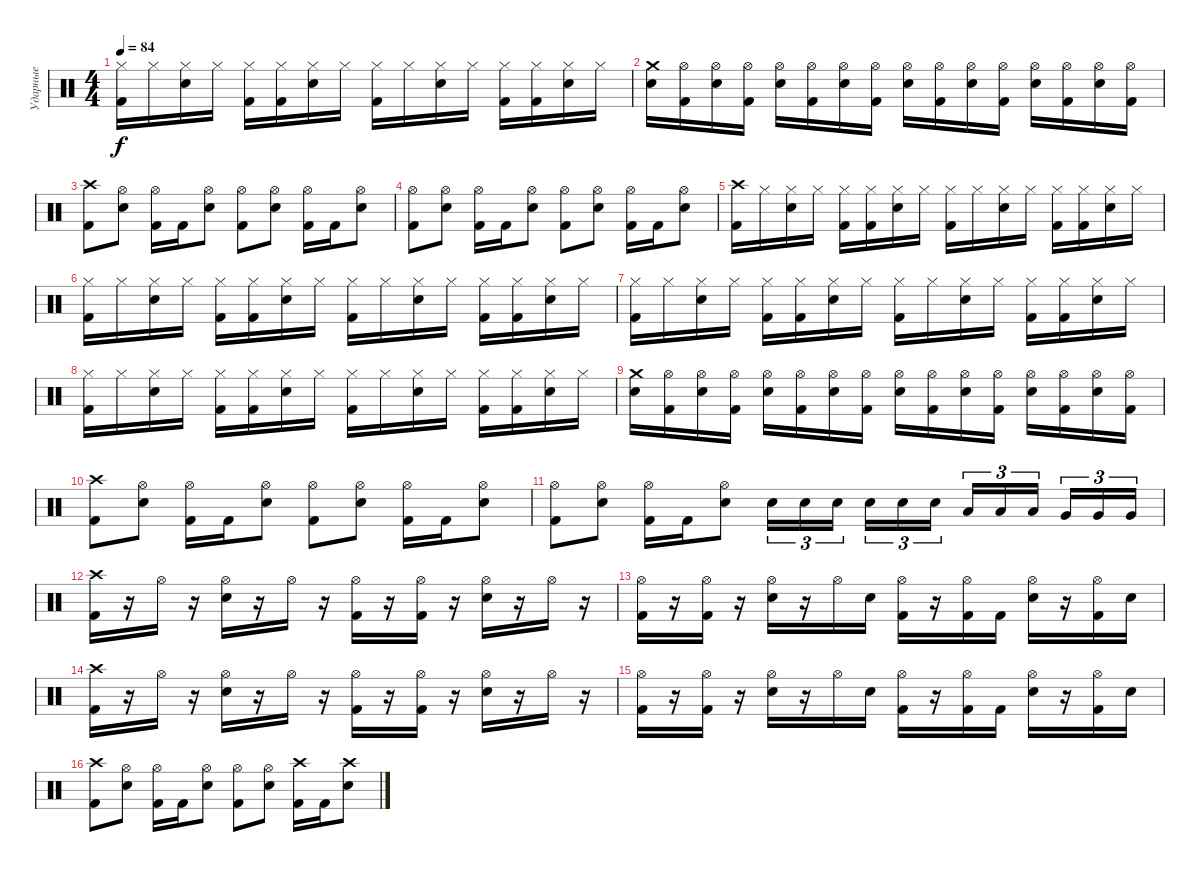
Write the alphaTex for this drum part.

\track ("Ударные" "Ударные") {instrument percussion}
\staff {score}
\articulation defaults
\ts (4 4)
\tempo 84
\clef neutral
\ks c
("Hi-Hat (closed)" "Kick (hit) 2").16{dy f} "Hi-Hat (closed)".16 ("Hi-Hat (closed)" "Snare (hit) 2").16 "Hi-Hat (closed)".16 ("Hi-Hat (closed)" "Kick (hit) 2").16 ("Hi-Hat (closed)" "Kick (hit) 2").16 ("Hi-Hat (closed)" "Snare (hit) 2").16 "Hi-Hat (closed)".16 ("Hi-Hat (closed)" "Kick (hit) 2").16 "Hi-Hat (closed)".16 ("Hi-Hat (closed)" "Snare (hit) 2").16 "Hi-Hat (closed)".16 ("Hi-Hat (closed)" "Kick (hit) 2").16 ("Hi-Hat (closed)" "Kick (hit) 2").16 ("Hi-Hat (closed)" "Snare (hit) 2").16 "Hi-Hat (closed)".16 |
("Crash medium (hit)" "Snare (hit) 2").16 ("Hi-Hat (open)" "Kick (hit) 2").16 ("Hi-Hat (open)" "Snare (hit) 2").16 ("Hi-Hat (open)" "Kick (hit) 2").16 ("Hi-Hat (open)" "Snare (hit) 2").16 ("Hi-Hat (open)" "Kick (hit) 2").16 ("Hi-Hat (open)" "Snare (hit) 2").16 ("Hi-Hat (open)" "Kick (hit) 2").16 ("Hi-Hat (open)" "Snare (hit) 2").16 ("Hi-Hat (open)" "Kick (hit) 2").16 ("Hi-Hat (open)" "Snare (hit) 2").16 ("Hi-Hat (open)" "Kick (hit) 2").16 ("Hi-Hat (open)" "Snare (hit) 2").16 ("Hi-Hat (open)" "Kick (hit) 2").16 ("Hi-Hat (open)" "Snare (hit) 2").16 ("Hi-Hat (open)" "Kick (hit) 2").16 |
("Crash high (hit)" "Kick (hit) 2").8 ("Hi-Hat (open)" "Snare (hit) 2").8 ("Hi-Hat (open)" "Kick (hit) 2").16 "Kick (hit) 2".16 ("Hi-Hat (open)" "Snare (hit) 2").8 ("Hi-Hat (open)" "Kick (hit) 2").8 ("Hi-Hat (open)" "Snare (hit) 2").8 ("Hi-Hat (open)" "Kick (hit) 2").16 "Kick (hit) 2".16 ("Hi-Hat (open)" "Snare (hit) 2").8 |
("Hi-Hat (open)" "Kick (hit) 2").8 ("Hi-Hat (open)" "Snare (hit) 2").8 ("Hi-Hat (open)" "Kick (hit) 2").16 "Kick (hit) 2".16 ("Hi-Hat (open)" "Snare (hit) 2").8 ("Hi-Hat (open)" "Kick (hit) 2").8 ("Hi-Hat (open)" "Snare (hit) 2").8 ("Hi-Hat (open)" "Kick (hit) 2").16 "Kick (hit) 2".16 ("Hi-Hat (open)" "Snare (hit) 2").8 |
("Crash high (hit)" "Kick (hit) 2").16 "Hi-Hat (closed)".16 ("Hi-Hat (closed)" "Snare (hit) 2").16 "Hi-Hat (closed)".16 ("Hi-Hat (closed)" "Kick (hit) 2").16 ("Hi-Hat (closed)" "Kick (hit) 2").16 ("Hi-Hat (closed)" "Snare (hit) 2").16 "Hi-Hat (closed)".16 ("Hi-Hat (closed)" "Kick (hit) 2").16 "Hi-Hat (closed)".16 ("Hi-Hat (closed)" "Snare (hit) 2").16 "Hi-Hat (closed)".16 ("Hi-Hat (closed)" "Kick (hit) 2").16 ("Hi-Hat (closed)" "Kick (hit) 2").16 ("Hi-Hat (closed)" "Snare (hit) 2").16 "Hi-Hat (closed)".16 |
("Hi-Hat (closed)" "Kick (hit) 2").16 "Hi-Hat (closed)".16 ("Hi-Hat (closed)" "Snare (hit) 2").16 "Hi-Hat (closed)".16 ("Hi-Hat (closed)" "Kick (hit) 2").16 ("Hi-Hat (closed)" "Kick (hit) 2").16 ("Hi-Hat (closed)" "Snare (hit) 2").16 "Hi-Hat (closed)".16 ("Hi-Hat (closed)" "Kick (hit) 2").16 "Hi-Hat (closed)".16 ("Hi-Hat (closed)" "Snare (hit) 2").16 "Hi-Hat (closed)".16 ("Hi-Hat (closed)" "Kick (hit) 2").16 ("Hi-Hat (closed)" "Kick (hit) 2").16 ("Hi-Hat (closed)" "Snare (hit) 2").16 "Hi-Hat (closed)".16 |
("Hi-Hat (closed)" "Kick (hit) 2").16 "Hi-Hat (closed)".16 ("Hi-Hat (closed)" "Snare (hit) 2").16 "Hi-Hat (closed)".16 ("Hi-Hat (closed)" "Kick (hit) 2").16 ("Hi-Hat (closed)" "Kick (hit) 2").16 ("Hi-Hat (closed)" "Snare (hit) 2").16 "Hi-Hat (closed)".16 ("Hi-Hat (closed)" "Kick (hit) 2").16 "Hi-Hat (closed)".16 ("Hi-Hat (closed)" "Snare (hit) 2").16 "Hi-Hat (closed)".16 ("Hi-Hat (closed)" "Kick (hit) 2").16 ("Hi-Hat (closed)" "Kick (hit) 2").16 ("Hi-Hat (closed)" "Snare (hit) 2").16 "Hi-Hat (closed)".16 |
("Hi-Hat (closed)" "Kick (hit) 2").16 "Hi-Hat (closed)".16 ("Hi-Hat (closed)" "Snare (hit) 2").16 "Hi-Hat (closed)".16 ("Hi-Hat (closed)" "Kick (hit) 2").16 ("Hi-Hat (closed)" "Kick (hit) 2").16 ("Hi-Hat (closed)" "Snare (hit) 2").16 "Hi-Hat (closed)".16 ("Hi-Hat (closed)" "Kick (hit) 2").16 "Hi-Hat (closed)".16 ("Hi-Hat (closed)" "Snare (hit) 2").16 "Hi-Hat (closed)".16 ("Hi-Hat (closed)" "Kick (hit) 2").16 ("Hi-Hat (closed)" "Kick (hit) 2").16 ("Hi-Hat (closed)" "Snare (hit) 2").16 "Hi-Hat (closed)".16 |
("Crash medium (hit)" "Snare (hit) 2").16 ("Hi-Hat (open)" "Kick (hit) 2").16 ("Hi-Hat (open)" "Snare (hit) 2").16 ("Hi-Hat (open)" "Kick (hit) 2").16 ("Hi-Hat (open)" "Snare (hit) 2").16 ("Hi-Hat (open)" "Kick (hit) 2").16 ("Hi-Hat (open)" "Snare (hit) 2").16 ("Hi-Hat (open)" "Kick (hit) 2").16 ("Hi-Hat (open)" "Snare (hit) 2").16 ("Hi-Hat (open)" "Kick (hit) 2").16 ("Hi-Hat (open)" "Snare (hit) 2").16 ("Hi-Hat (open)" "Kick (hit) 2").16 ("Hi-Hat (open)" "Snare (hit) 2").16 ("Hi-Hat (open)" "Kick (hit) 2").16 ("Hi-Hat (open)" "Snare (hit) 2").16 ("Hi-Hat (open)" "Kick (hit) 2").16 |
("Crash high (hit)" "Kick (hit) 2").8 ("Hi-Hat (open)" "Snare (hit) 2").8 ("Hi-Hat (open)" "Kick (hit) 2").16 "Kick (hit) 2".16 ("Hi-Hat (open)" "Snare (hit) 2").8 ("Hi-Hat (open)" "Kick (hit) 2").8 ("Hi-Hat (open)" "Snare (hit) 2").8 ("Hi-Hat (open)" "Kick (hit) 2").16 "Kick (hit) 2".16 ("Hi-Hat (open)" "Snare (hit) 2").8 |
("Hi-Hat (open)" "Kick (hit) 2").8 ("Hi-Hat (open)" "Snare (hit) 2").8 ("Hi-Hat (open)" "Kick (hit) 2").16 "Kick (hit) 2".16 ("Hi-Hat (open)" "Snare (hit) 2").8 "Snare (hit) 2".16{tu (3 2)} "Snare (hit) 2".16{tu (3 2)} "Snare (hit) 2".16{tu (3 2) beam splitsecondary} "Snare (hit) 2".16{tu (3 2)} "Snare (hit) 2".16{tu (3 2)} "Snare (hit) 2".16{tu (3 2)} "Low Tom (hit)".16{tu (3 2)} "Low Tom (hit)".16{tu (3 2)} "Low Tom (hit)".16{tu (3 2) beam splitsecondary} "Very Low Tom (hit)".16{tu (3 2)} "Very Low Tom (hit)".16{tu (3 2)} "Very Low Tom (hit)".16{tu (3 2)} |
("Crash high (hit)" "Kick (hit) 2").16 r.16 "Hi-Hat (open)".16 r.16 ("Hi-Hat (open)" "Snare (hit) 2").16 r.16 "Hi-Hat (open)".16 r.16 ("Hi-Hat (open)" "Kick (hit) 2").16 r.16 ("Hi-Hat (open)" "Kick (hit) 2").16 r.16 ("Hi-Hat (open)" "Snare (hit) 2").16 r.16 "Hi-Hat (open)".16 r.16 |
("Hi-Hat (open)" "Kick (hit) 2").16 r.16 ("Hi-Hat (open)" "Kick (hit) 2").16 r.16 ("Hi-Hat (open)" "Snare (hit) 2").16 r.16 "Hi-Hat (open)".16 "Snare (hit) 2".16 ("Hi-Hat (open)" "Kick (hit) 2").16 r.16 ("Hi-Hat (open)" "Kick (hit) 2").16 "Kick (hit) 2".16 ("Hi-Hat (open)" "Snare (hit) 2").16 r.16 ("Hi-Hat (open)" "Kick (hit) 2").16 "Snare (hit) 2".16 |
("Crash high (hit)" "Kick (hit) 2").16 r.16 "Hi-Hat (open)".16 r.16 ("Hi-Hat (open)" "Snare (hit) 2").16 r.16 "Hi-Hat (open)".16 r.16 ("Hi-Hat (open)" "Kick (hit) 2").16 r.16 ("Hi-Hat (open)" "Kick (hit) 2").16 r.16 ("Hi-Hat (open)" "Snare (hit) 2").16 r.16 "Hi-Hat (open)".16 r.16 |
("Hi-Hat (open)" "Kick (hit) 2").16 r.16 ("Hi-Hat (open)" "Kick (hit) 2").16 r.16 ("Hi-Hat (open)" "Snare (hit) 2").16 r.16 "Hi-Hat (open)".16 "Snare (hit) 2".16 ("Hi-Hat (open)" "Kick (hit) 2").16 r.16 ("Hi-Hat (open)" "Kick (hit) 2").16 "Kick (hit) 2".16 ("Hi-Hat (open)" "Snare (hit) 2").16 r.16 ("Hi-Hat (open)" "Kick (hit) 2").16 "Snare (hit) 2".16 |
("Crash high (hit)" "Kick (hit) 2").8 ("Hi-Hat (open)" "Snare (hit) 2").8 ("Hi-Hat (open)" "Kick (hit) 2").16 "Kick (hit) 2".16 ("Hi-Hat (open)" "Snare (hit) 2").8 ("Hi-Hat (open)" "Kick (hit) 2").8 ("Hi-Hat (open)" "Snare (hit) 2").8 ("Crash high (hit)" "Kick (hit) 2").16 "Kick (hit) 2".16 ("Crash high (hit)" "Snare (hit) 2").8
